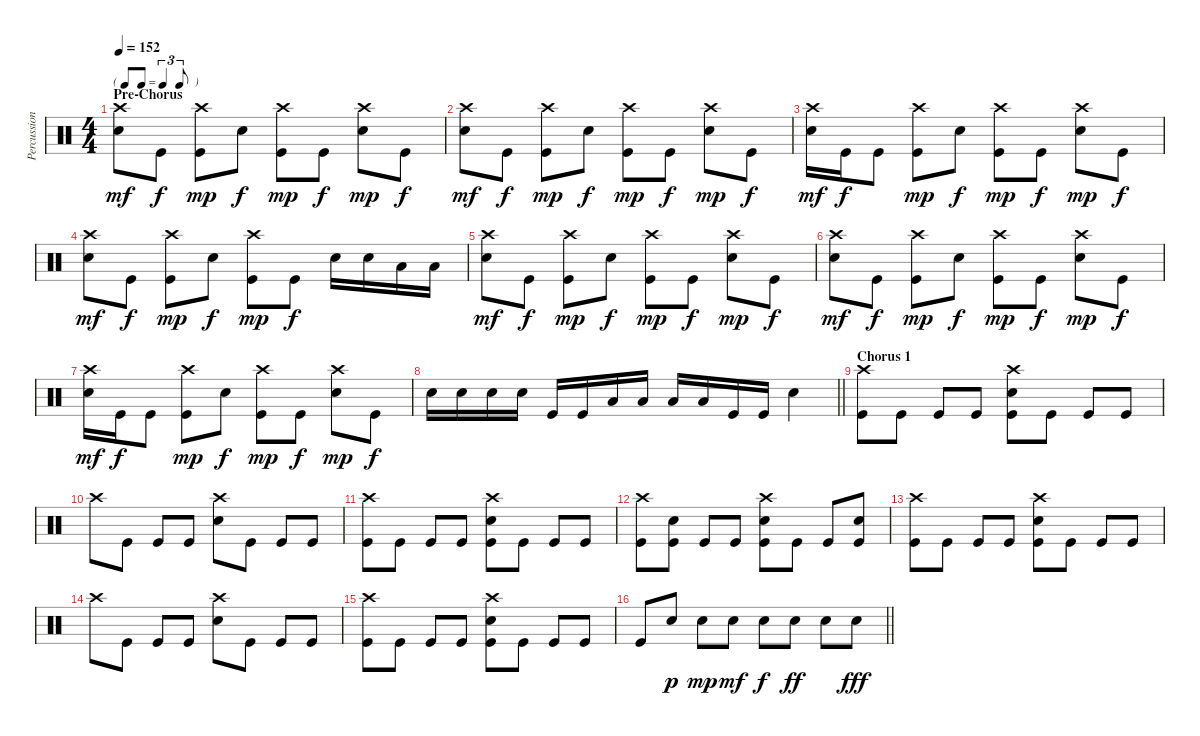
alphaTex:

\track ("Percussion" "Percussion") {instrument percussion}
\staff {score}
\articulation defaults
\ts (4 4)
\tf triplet8th
\section ("" "Pre-Chorus")
\tempo 152
\clef neutral
\ks c
("Crash high (hit)" "Snare (hit) 2").8{dy mf} "Kick (hit)".8{dy f} ("Crash high (hit)" "Kick (hit)").8{dy mp} "Snare (hit) 2".8{dy f} ("Crash high (hit)" "Kick (hit)").8{dy mp} "Kick (hit)".8{dy f} ("Crash high (hit)" "Snare (hit) 2").8{dy mp} "Kick (hit)".8{dy f} |
("Crash high (hit)" "Snare (hit) 2").8{dy mf} "Kick (hit)".8{dy f} ("Crash high (hit)" "Kick (hit)").8{dy mp} "Snare (hit) 2".8{dy f} ("Crash high (hit)" "Kick (hit)").8{dy mp} "Kick (hit)".8{dy f} ("Crash high (hit)" "Snare (hit) 2").8{dy mp} "Kick (hit)".8{dy f} |
("Crash high (hit)" "Snare (hit) 2").16{dy mf} "Kick (hit)".16{dy f} "Kick (hit)".8 ("Crash high (hit)" "Kick (hit)").8{dy mp} "Snare (hit) 2".8{dy f} ("Crash high (hit)" "Kick (hit)").8{dy mp} "Kick (hit)".8{dy f} ("Crash high (hit)" "Snare (hit) 2").8{dy mp} "Kick (hit)".8{dy f} |
("Crash high (hit)" "Snare (hit) 2").8{dy mf} "Kick (hit)".8{dy f} ("Crash high (hit)" "Kick (hit)").8{dy mp} "Snare (hit) 2".8{dy f} ("Crash high (hit)" "Kick (hit)").8{dy mp} "Kick (hit)".8{dy f} "Snare (hit) 2".16 "Snare (hit) 2".16 "Low Tom (hit)".16 "Low Tom (hit)".16 |
("Crash high (hit)" "Snare (hit) 2").8{dy mf} "Kick (hit)".8{dy f} ("Crash high (hit)" "Kick (hit)").8{dy mp} "Snare (hit) 2".8{dy f} ("Crash high (hit)" "Kick (hit)").8{dy mp} "Kick (hit)".8{dy f} ("Crash high (hit)" "Snare (hit) 2").8{dy mp} "Kick (hit)".8{dy f} |
("Crash high (hit)" "Snare (hit) 2").8{dy mf} "Kick (hit)".8{dy f} ("Crash high (hit)" "Kick (hit)").8{dy mp} "Snare (hit) 2".8{dy f} ("Crash high (hit)" "Kick (hit)").8{dy mp} "Kick (hit)".8{dy f} ("Crash high (hit)" "Snare (hit) 2").8{dy mp} "Kick (hit)".8{dy f} |
("Crash high (hit)" "Snare (hit) 2").16{dy mf} "Kick (hit)".16{dy f} "Kick (hit)".8 ("Crash high (hit)" "Kick (hit)").8{dy mp} "Snare (hit) 2".8{dy f} ("Crash high (hit)" "Kick (hit)").8{dy mp} "Kick (hit)".8{dy f} ("Crash high (hit)" "Snare (hit) 2").8{dy mp} "Kick (hit)".8{dy f} |
\barLineRight lightlight "Snare (hit) 2".16 "Snare (hit) 2".16 "Snare (hit) 2".16 "Snare (hit) 2".16 "Kick (hit)".16 "Kick (hit)".16 "Low Tom (hit)".16 "Low Tom (hit)".16 "Low Tom (hit)".16 "Low Tom (hit)".16 "Kick (hit)".16 "Kick (hit)".16 "Snare (hit) 2".4
|
\section ("" "Chorus 1")
("Crash high (hit)" "Kick (hit)").8 "Kick (hit)".8 "Kick (hit)".8 "Kick (hit)".8 ("Crash high (hit)" "Snare (hit) 2" "Kick (hit)").8 "Kick (hit)".8 "Kick (hit)".8 "Kick (hit)".8 |
"Crash high (hit)".8 "Kick (hit)".8 "Kick (hit)".8 "Kick (hit)".8 ("Snare (hit) 2" "Crash high (hit)").8 "Kick (hit)".8 "Kick (hit)".8 "Kick (hit)".8 |
("Crash high (hit)" "Kick (hit)").8 "Kick (hit)".8 "Kick (hit)".8 "Kick (hit)".8 ("Crash high (hit)" "Snare (hit) 2" "Kick (hit)").8 "Kick (hit)".8 "Kick (hit)".8 "Kick (hit)".8 |
("Crash high (hit)" "Kick (hit)").8 ("Snare (hit) 2" "Kick (hit)").8 "Kick (hit)".8 "Kick (hit)".8 ("Snare (hit) 2" "Crash high (hit)" "Kick (hit)").8 "Kick (hit)".8 "Kick (hit)".8 ("Snare (hit) 2" "Kick (hit)").8 |
("Crash high (hit)" "Kick (hit)").8 "Kick (hit)".8 "Kick (hit)".8 "Kick (hit)".8 ("Crash high (hit)" "Snare (hit) 2" "Kick (hit)").8 "Kick (hit)".8 "Kick (hit)".8 "Kick (hit)".8 |
"Crash high (hit)".8 "Kick (hit)".8 "Kick (hit)".8 "Kick (hit)".8 ("Snare (hit) 2" "Crash high (hit)").8 "Kick (hit)".8 "Kick (hit)".8 "Kick (hit)".8 |
("Crash high (hit)" "Kick (hit)").8 "Kick (hit)".8 "Kick (hit)".8 "Kick (hit)".8 ("Crash high (hit)" "Snare (hit) 2" "Kick (hit)").8 "Kick (hit)".8 "Kick (hit)".8 "Kick (hit)".8 |
\barLineRight lightlight "Kick (hit)".8 "Snare (hit) 2".8{dy p} "Snare (hit) 2".8{dy mp} "Snare (hit) 2".8{dy mf} "Snare (hit) 2".8{dy f} "Snare (hit) 2".8{dy ff} "Snare (hit) 2".8 "Snare (hit) 2".8{dy fff}
